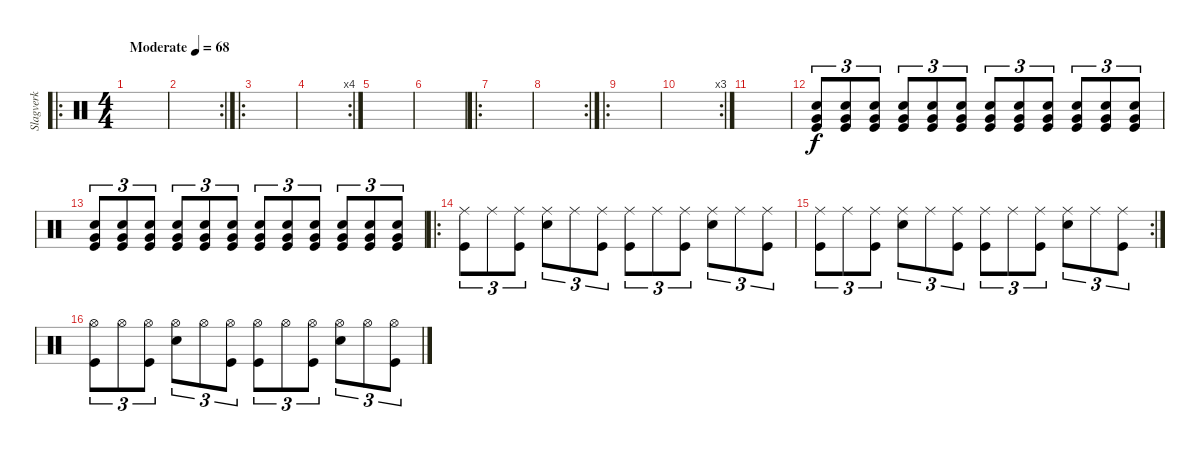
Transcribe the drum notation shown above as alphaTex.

\track ("Slagverk" "Slagverk") {instrument percussion}
\staff {score}
\articulation defaults
\ro
\ts (4 4)
\tempo (68 "Moderate")
\clef neutral
\ks c
|
\rc 2
|
\ro
|
\rc 4
|
|
|
\ro
|
\rc 2
|
\ro
|
\rc 3
|
|
("Kick (hit)" "Very Low Tom (hit)" "Snare (hit) 2").8{tu (3 2) volume 14} ("Kick (hit)" "Very Low Tom (hit)" "Snare (hit) 2").8{tu (3 2)} ("Kick (hit)" "Very Low Tom (hit)" "Snare (hit) 2").8{tu (3 2)} ("Kick (hit)" "Very Low Tom (hit)" "Snare (hit) 2").8{tu (3 2)} ("Kick (hit)" "Very Low Tom (hit)" "Snare (hit) 2").8{tu (3 2)} ("Kick (hit)" "Very Low Tom (hit)" "Snare (hit) 2").8{tu (3 2)} ("Kick (hit)" "Very Low Tom (hit)" "Snare (hit) 2").8{tu (3 2)} ("Kick (hit)" "Very Low Tom (hit)" "Snare (hit) 2").8{tu (3 2)} ("Kick (hit)" "Very Low Tom (hit)" "Snare (hit) 2").8{tu (3 2)} ("Kick (hit)" "Very Low Tom (hit)" "Snare (hit) 2").8{tu (3 2)} ("Kick (hit)" "Very Low Tom (hit)" "Snare (hit) 2").8{tu (3 2)} ("Kick (hit)" "Very Low Tom (hit)" "Snare (hit) 2").8{tu (3 2)} |
("Kick (hit)" "Very Low Tom (hit)" "Snare (hit) 2").8{tu (3 2)} ("Kick (hit)" "Very Low Tom (hit)" "Snare (hit) 2").8{tu (3 2)} ("Kick (hit)" "Very Low Tom (hit)" "Snare (hit) 2").8{tu (3 2)} ("Kick (hit)" "Very Low Tom (hit)" "Snare (hit) 2").8{tu (3 2)} ("Kick (hit)" "Very Low Tom (hit)" "Snare (hit) 2").8{tu (3 2)} ("Kick (hit)" "Very Low Tom (hit)" "Snare (hit) 2").8{tu (3 2)} ("Kick (hit)" "Very Low Tom (hit)" "Snare (hit) 2").8{tu (3 2)} ("Kick (hit)" "Very Low Tom (hit)" "Snare (hit) 2").8{tu (3 2)} ("Kick (hit)" "Very Low Tom (hit)" "Snare (hit) 2").8{tu (3 2)} ("Kick (hit)" "Very Low Tom (hit)" "Snare (hit) 2").8{tu (3 2)} ("Kick (hit)" "Very Low Tom (hit)" "Snare (hit) 2").8{tu (3 2)} ("Kick (hit)" "Very Low Tom (hit)" "Snare (hit) 2").8{tu (3 2)} |
\ro
("Ride (middle)" "Kick (hit)").8{tu (3 2)} "Ride (middle)".8{tu (3 2)} ("Ride (middle)" "Kick (hit)").8{tu (3 2)} ("Ride (middle)" "Snare (hit) 2").8{tu (3 2)} "Ride (middle)".8{tu (3 2)} ("Ride (middle)" "Kick (hit)").8{tu (3 2)} ("Ride (middle)" "Kick (hit)").8{tu (3 2)} "Ride (middle)".8{tu (3 2)} ("Ride (middle)" "Kick (hit)").8{tu (3 2)} ("Ride (middle)" "Snare (hit) 2").8{tu (3 2)} "Ride (middle)".8{tu (3 2)} ("Ride (middle)" "Kick (hit)").8{tu (3 2)} |
\rc 2
("Ride (middle)" "Kick (hit)").8{tu (3 2)} "Ride (middle)".8{tu (3 2)} ("Ride (middle)" "Kick (hit)").8{tu (3 2)} ("Ride (middle)" "Snare (hit) 2").8{tu (3 2)} "Ride (middle)".8{tu (3 2)} ("Ride (middle)" "Kick (hit)").8{tu (3 2)} ("Ride (middle)" "Kick (hit)").8{tu (3 2)} "Ride (middle)".8{tu (3 2)} ("Ride (middle)" "Kick (hit)").8{tu (3 2)} ("Ride (middle)" "Snare (hit) 2").8{tu (3 2)} "Ride (middle)".8{tu (3 2)} ("Ride (middle)" "Kick (hit)").8{tu (3 2)} |
("Hi-Hat (open)" "Kick (hit)").8{tu (3 2)} "Hi-Hat (open)".8{tu (3 2)} ("Hi-Hat (open)" "Kick (hit)").8{tu (3 2)} ("Hi-Hat (open)" "Snare (hit) 2").8{tu (3 2)} "Hi-Hat (open)".8{tu (3 2)} ("Hi-Hat (open)" "Kick (hit)").8{tu (3 2)} ("Hi-Hat (open)" "Kick (hit)").8{tu (3 2)} "Hi-Hat (open)".8{tu (3 2)} ("Hi-Hat (open)" "Kick (hit)").8{tu (3 2)} ("Hi-Hat (open)" "Snare (hit) 2").8{tu (3 2)} "Hi-Hat (open)".8{tu (3 2)} ("Hi-Hat (open)" "Kick (hit)").8{tu (3 2)}
